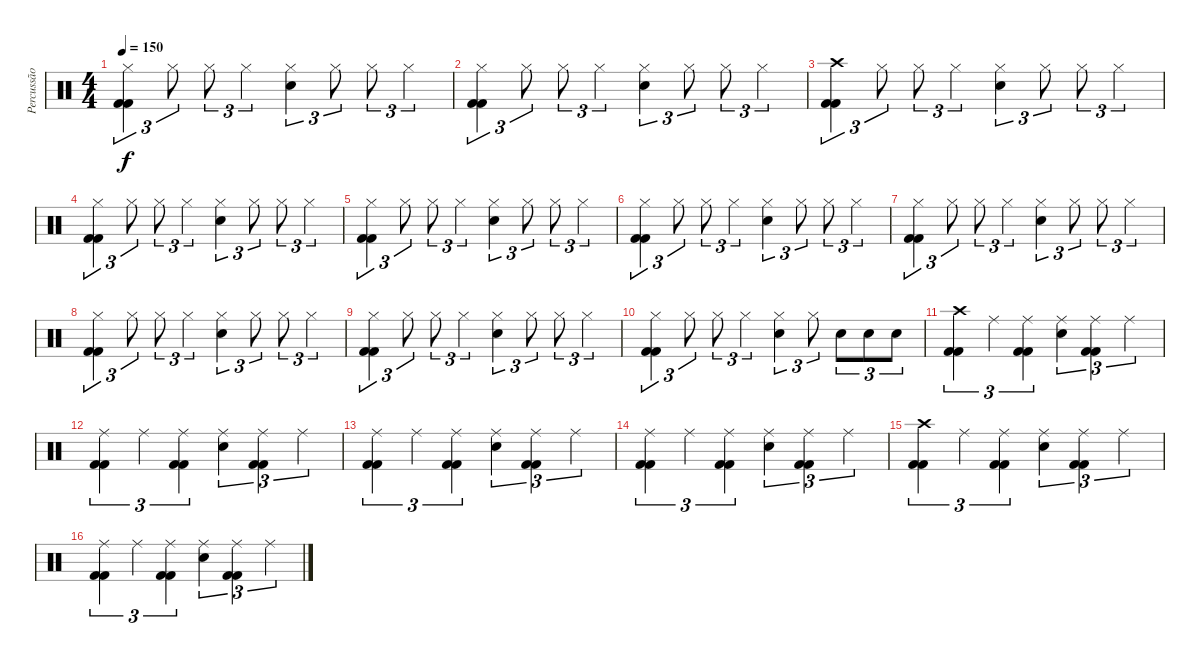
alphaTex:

\track ("Percussão" "Percussão") {instrument percussion}
\staff {score}
\articulation defaults
\ts (4 4)
\tempo 150
\clef neutral
\ks c
("Hi-Hat (closed)" "Kick (hit) 2" "Kick (hit) 2").4{tu (3 2) dy f} "Hi-Hat (closed)".8{tu (3 2)} "Hi-Hat (closed)".8{tu (3 2)} "Hi-Hat (closed)".4{tu (3 2)} ("Hi-Hat (closed)" "Electric Snare (hit)").4{tu (3 2)} "Hi-Hat (closed)".8{tu (3 2)} "Hi-Hat (closed)".8{tu (3 2)} "Hi-Hat (closed)".4{tu (3 2)} |
("Hi-Hat (closed)" "Kick (hit) 2" "Kick (hit) 2").4{tu (3 2)} "Hi-Hat (closed)".8{tu (3 2)} "Hi-Hat (closed)".8{tu (3 2)} "Hi-Hat (closed)".4{tu (3 2)} ("Hi-Hat (closed)" "Electric Snare (hit)").4{tu (3 2)} "Hi-Hat (closed)".8{tu (3 2)} "Hi-Hat (closed)".8{tu (3 2)} "Hi-Hat (closed)".4{tu (3 2)} |
("Crash high (hit)" "Kick (hit) 2" "Kick (hit) 2").4{tu (3 2)} "Hi-Hat (closed)".8{tu (3 2)} "Hi-Hat (closed)".8{tu (3 2)} "Hi-Hat (closed)".4{tu (3 2)} ("Hi-Hat (closed)" "Electric Snare (hit)").4{tu (3 2)} "Hi-Hat (closed)".8{tu (3 2)} "Hi-Hat (closed)".8{tu (3 2)} "Hi-Hat (closed)".4{tu (3 2)} |
("Hi-Hat (closed)" "Kick (hit) 2" "Kick (hit) 2").4{tu (3 2)} "Hi-Hat (closed)".8{tu (3 2)} "Hi-Hat (closed)".8{tu (3 2)} "Hi-Hat (closed)".4{tu (3 2)} ("Hi-Hat (closed)" "Electric Snare (hit)").4{tu (3 2)} "Hi-Hat (closed)".8{tu (3 2)} "Hi-Hat (closed)".8{tu (3 2)} "Hi-Hat (closed)".4{tu (3 2)} |
("Hi-Hat (closed)" "Kick (hit) 2" "Kick (hit) 2").4{tu (3 2)} "Hi-Hat (closed)".8{tu (3 2)} "Hi-Hat (closed)".8{tu (3 2)} "Hi-Hat (closed)".4{tu (3 2)} ("Hi-Hat (closed)" "Electric Snare (hit)").4{tu (3 2)} "Hi-Hat (closed)".8{tu (3 2)} "Hi-Hat (closed)".8{tu (3 2)} "Hi-Hat (closed)".4{tu (3 2)} |
("Hi-Hat (closed)" "Kick (hit) 2" "Kick (hit) 2").4{tu (3 2)} "Hi-Hat (closed)".8{tu (3 2)} "Hi-Hat (closed)".8{tu (3 2)} "Hi-Hat (closed)".4{tu (3 2)} ("Hi-Hat (closed)" "Electric Snare (hit)").4{tu (3 2)} "Hi-Hat (closed)".8{tu (3 2)} "Hi-Hat (closed)".8{tu (3 2)} "Hi-Hat (closed)".4{tu (3 2)} |
("Hi-Hat (closed)" "Kick (hit) 2" "Kick (hit) 2").4{tu (3 2)} "Hi-Hat (closed)".8{tu (3 2)} "Hi-Hat (closed)".8{tu (3 2)} "Hi-Hat (closed)".4{tu (3 2)} ("Hi-Hat (closed)" "Electric Snare (hit)").4{tu (3 2)} "Hi-Hat (closed)".8{tu (3 2)} "Hi-Hat (closed)".8{tu (3 2)} "Hi-Hat (closed)".4{tu (3 2)} |
("Hi-Hat (closed)" "Kick (hit) 2" "Kick (hit) 2").4{tu (3 2)} "Hi-Hat (closed)".8{tu (3 2)} "Hi-Hat (closed)".8{tu (3 2)} "Hi-Hat (closed)".4{tu (3 2)} ("Hi-Hat (closed)" "Electric Snare (hit)").4{tu (3 2)} "Hi-Hat (closed)".8{tu (3 2)} "Hi-Hat (closed)".8{tu (3 2)} "Hi-Hat (closed)".4{tu (3 2)} |
("Hi-Hat (closed)" "Kick (hit) 2" "Kick (hit) 2").4{tu (3 2)} "Hi-Hat (closed)".8{tu (3 2)} "Hi-Hat (closed)".8{tu (3 2)} "Hi-Hat (closed)".4{tu (3 2)} ("Hi-Hat (closed)" "Electric Snare (hit)").4{tu (3 2)} "Hi-Hat (closed)".8{tu (3 2)} "Hi-Hat (closed)".8{tu (3 2)} "Hi-Hat (closed)".4{tu (3 2)} |
("Hi-Hat (closed)" "Kick (hit) 2" "Kick (hit) 2").4{tu (3 2)} "Hi-Hat (closed)".8{tu (3 2)} "Hi-Hat (closed)".8{tu (3 2)} "Hi-Hat (closed)".4{tu (3 2)} ("Hi-Hat (closed)" "Electric Snare (hit)").4{tu (3 2)} "Hi-Hat (closed)".8{tu (3 2)} "Electric Snare (hit)".8{tu (3 2)} "Electric Snare (hit)".8{tu (3 2)} "Electric Snare (hit)".8{tu (3 2)} |
("Crash high (hit)" "Kick (hit) 2" "Kick (hit) 2").4{tu (3 2)} "Ride (middle)".4{tu (3 2)} ("Ride (middle)" "Kick (hit) 2" "Kick (hit) 2").4{tu (3 2)} ("Ride (middle)" "Electric Snare (hit)").4{tu (3 2)} ("Ride (middle)" "Kick (hit) 2" "Kick (hit) 2").4{tu (3 2)} "Ride (middle)".4{tu (3 2)} |
("Ride (middle)" "Kick (hit) 2" "Kick (hit) 2").4{tu (3 2)} "Ride (middle)".4{tu (3 2)} ("Ride (middle)" "Kick (hit) 2" "Kick (hit) 2").4{tu (3 2)} ("Ride (middle)" "Electric Snare (hit)").4{tu (3 2)} ("Ride (middle)" "Kick (hit) 2" "Kick (hit) 2").4{tu (3 2)} "Ride (middle)".4{tu (3 2)} |
("Ride (middle)" "Kick (hit) 2" "Kick (hit) 2").4{tu (3 2)} "Ride (middle)".4{tu (3 2)} ("Ride (middle)" "Kick (hit) 2" "Kick (hit) 2").4{tu (3 2)} ("Ride (middle)" "Electric Snare (hit)").4{tu (3 2)} ("Ride (middle)" "Kick (hit) 2" "Kick (hit) 2").4{tu (3 2)} "Ride (middle)".4{tu (3 2)} |
("Ride (middle)" "Kick (hit) 2" "Kick (hit) 2").4{tu (3 2)} "Ride (middle)".4{tu (3 2)} ("Ride (middle)" "Kick (hit) 2" "Kick (hit) 2").4{tu (3 2)} ("Ride (middle)" "Electric Snare (hit)").4{tu (3 2)} ("Ride (middle)" "Kick (hit) 2" "Kick (hit) 2").4{tu (3 2)} "Ride (middle)".4{tu (3 2)} |
("Crash high (hit)" "Kick (hit) 2" "Kick (hit) 2").4{tu (3 2)} "Ride (middle)".4{tu (3 2)} ("Ride (middle)" "Kick (hit) 2" "Kick (hit) 2").4{tu (3 2)} ("Ride (middle)" "Electric Snare (hit)").4{tu (3 2)} ("Ride (middle)" "Kick (hit) 2" "Kick (hit) 2").4{tu (3 2)} "Ride (middle)".4{tu (3 2)} |
("Ride (middle)" "Kick (hit) 2" "Kick (hit) 2").4{tu (3 2)} "Ride (middle)".4{tu (3 2)} ("Ride (middle)" "Kick (hit) 2" "Kick (hit) 2").4{tu (3 2)} ("Ride (middle)" "Electric Snare (hit)").4{tu (3 2)} ("Ride (middle)" "Kick (hit) 2" "Kick (hit) 2").4{tu (3 2)} "Ride (middle)".4{tu (3 2)}
